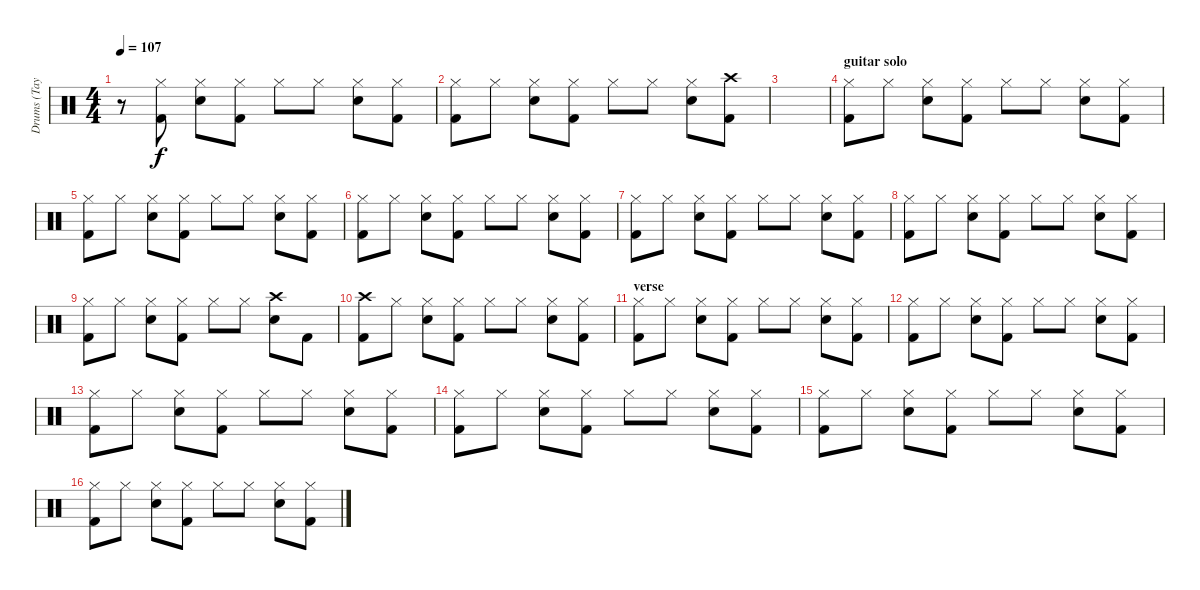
\track ("Drums (Taylor)" "Drums (Tay") {instrument percussion}
\staff {score}
\articulation defaults
\ts (4 4)
\tempo 107
\clef neutral
\ks c
r.8{dy f} ("Hi-Hat (closed)" "Kick (hit) 2").8 ("Hi-Hat (closed)" "Electric Snare (hit)").8 ("Hi-Hat (closed)" "Kick (hit) 2").8 "Hi-Hat (closed)".8 "Hi-Hat (closed)".8 ("Hi-Hat (closed)" "Electric Snare (hit)").8 ("Hi-Hat (closed)" "Kick (hit) 2").8 |
("Hi-Hat (closed)" "Kick (hit) 2").8 "Hi-Hat (closed)".8 ("Hi-Hat (closed)" "Electric Snare (hit)").8 ("Hi-Hat (closed)" "Kick (hit) 2").8 "Hi-Hat (closed)".8 "Hi-Hat (closed)".8 ("Hi-Hat (closed)" "Electric Snare (hit)").8 ("Crash high (hit)" "Kick (hit) 2").8 |
|
\section ("" "guitar solo")
("Hi-Hat (closed)" "Kick (hit) 2").8 "Hi-Hat (closed)".8 ("Hi-Hat (closed)" "Electric Snare (hit)").8 ("Hi-Hat (closed)" "Kick (hit) 2").8 "Hi-Hat (closed)".8 "Hi-Hat (closed)".8 ("Hi-Hat (closed)" "Electric Snare (hit)").8 ("Hi-Hat (closed)" "Kick (hit) 2").8 |
("Hi-Hat (closed)" "Kick (hit) 2").8 "Hi-Hat (closed)".8 ("Hi-Hat (closed)" "Electric Snare (hit)").8 ("Hi-Hat (closed)" "Kick (hit) 2").8 "Hi-Hat (closed)".8 "Hi-Hat (closed)".8 ("Hi-Hat (closed)" "Electric Snare (hit)").8 ("Hi-Hat (closed)" "Kick (hit) 2").8 |
("Hi-Hat (closed)" "Kick (hit) 2").8 "Hi-Hat (closed)".8 ("Hi-Hat (closed)" "Electric Snare (hit)").8 ("Hi-Hat (closed)" "Kick (hit) 2").8 "Hi-Hat (closed)".8 "Hi-Hat (closed)".8 ("Hi-Hat (closed)" "Electric Snare (hit)").8 ("Hi-Hat (closed)" "Kick (hit) 2").8 |
("Hi-Hat (closed)" "Kick (hit) 2").8 "Hi-Hat (closed)".8 ("Hi-Hat (closed)" "Electric Snare (hit)").8 ("Hi-Hat (closed)" "Kick (hit) 2").8 "Hi-Hat (closed)".8 "Hi-Hat (closed)".8 ("Hi-Hat (closed)" "Electric Snare (hit)").8 ("Hi-Hat (closed)" "Kick (hit) 2").8 |
("Hi-Hat (closed)" "Kick (hit) 2").8 "Hi-Hat (closed)".8 ("Hi-Hat (closed)" "Electric Snare (hit)").8 ("Hi-Hat (closed)" "Kick (hit) 2").8 "Hi-Hat (closed)".8 "Hi-Hat (closed)".8 ("Hi-Hat (closed)" "Electric Snare (hit)").8 ("Hi-Hat (closed)" "Kick (hit) 2").8 |
("Hi-Hat (closed)" "Kick (hit) 2").8 "Hi-Hat (closed)".8 ("Hi-Hat (closed)" "Electric Snare (hit)").8 ("Hi-Hat (closed)" "Kick (hit) 2").8 "Hi-Hat (closed)".8 "Hi-Hat (closed)".8 ("Crash high (hit)" "Electric Snare (hit)").8 "Kick (hit) 2".8 |
("Crash high (hit)" "Kick (hit) 2").8 "Hi-Hat (closed)".8 ("Hi-Hat (closed)" "Electric Snare (hit)").8 ("Hi-Hat (closed)" "Kick (hit) 2").8 "Hi-Hat (closed)".8 "Hi-Hat (closed)".8 ("Hi-Hat (closed)" "Electric Snare (hit)").8 ("Hi-Hat (closed)" "Kick (hit) 2").8 |
\section ("" "verse")
("Hi-Hat (closed)" "Kick (hit) 2").8 "Hi-Hat (closed)".8 ("Hi-Hat (closed)" "Electric Snare (hit)").8 ("Hi-Hat (closed)" "Kick (hit) 2").8 "Hi-Hat (closed)".8 "Hi-Hat (closed)".8 ("Hi-Hat (closed)" "Electric Snare (hit)").8 ("Hi-Hat (closed)" "Kick (hit) 2").8 |
("Hi-Hat (closed)" "Kick (hit) 2").8 "Hi-Hat (closed)".8 ("Hi-Hat (closed)" "Electric Snare (hit)").8 ("Hi-Hat (closed)" "Kick (hit) 2").8 "Hi-Hat (closed)".8 "Hi-Hat (closed)".8 ("Hi-Hat (closed)" "Electric Snare (hit)").8 ("Hi-Hat (closed)" "Kick (hit) 2").8 |
("Hi-Hat (closed)" "Kick (hit) 2").8 "Hi-Hat (closed)".8 ("Hi-Hat (closed)" "Electric Snare (hit)").8 ("Hi-Hat (closed)" "Kick (hit) 2").8 "Hi-Hat (closed)".8 "Hi-Hat (closed)".8 ("Hi-Hat (closed)" "Electric Snare (hit)").8 ("Hi-Hat (closed)" "Kick (hit) 2").8 |
("Hi-Hat (closed)" "Kick (hit) 2").8 "Hi-Hat (closed)".8 ("Hi-Hat (closed)" "Electric Snare (hit)").8 ("Hi-Hat (closed)" "Kick (hit) 2").8 "Hi-Hat (closed)".8 "Hi-Hat (closed)".8 ("Hi-Hat (closed)" "Electric Snare (hit)").8 ("Hi-Hat (closed)" "Kick (hit) 2").8 |
("Hi-Hat (closed)" "Kick (hit) 2").8 "Hi-Hat (closed)".8 ("Hi-Hat (closed)" "Electric Snare (hit)").8 ("Hi-Hat (closed)" "Kick (hit) 2").8 "Hi-Hat (closed)".8 "Hi-Hat (closed)".8 ("Hi-Hat (closed)" "Electric Snare (hit)").8 ("Hi-Hat (closed)" "Kick (hit) 2").8 |
("Hi-Hat (closed)" "Kick (hit) 2").8 "Hi-Hat (closed)".8 ("Hi-Hat (closed)" "Electric Snare (hit)").8 ("Hi-Hat (closed)" "Kick (hit) 2").8 "Hi-Hat (closed)".8 "Hi-Hat (closed)".8 ("Hi-Hat (closed)" "Electric Snare (hit)").8 ("Hi-Hat (closed)" "Kick (hit) 2").8
